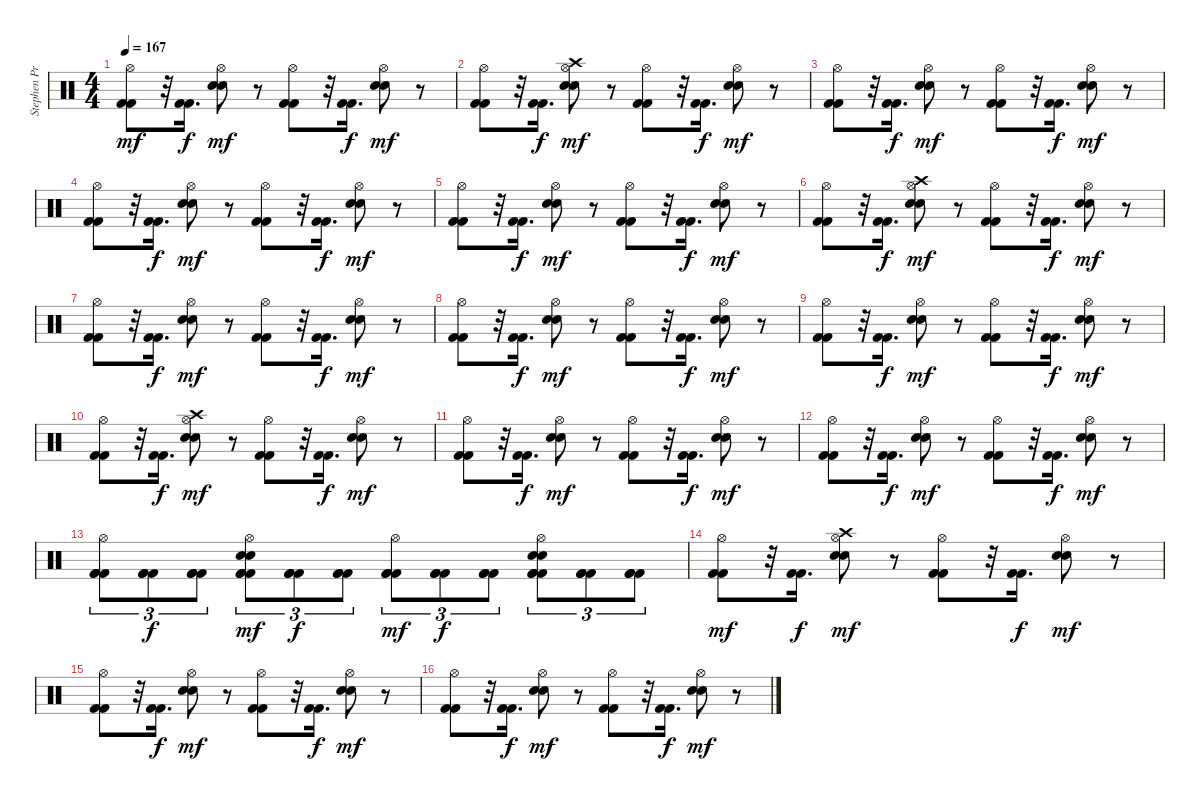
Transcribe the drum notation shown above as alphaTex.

\track ("Stephen Priestly  (Drums)" "Stephen Pr") {instrument percussion}
\staff {score}
\articulation defaults
\ts (4 4)
\tempo 167
\clef neutral
\ks c
("Hi-Hat (open)" "Kick (hit) 2" "Kick (hit) 2").8{dy mf} r.32 ("Kick (hit) 2" "Kick (hit) 2").16{d dy f} ("Hi-Hat (open)" "Electric Snare (hit)" "Electric Snare (hit)").8{dy mf} r.8 ("Hi-Hat (open)" "Kick (hit) 2" "Kick (hit) 2").8 r.32 ("Kick (hit) 2" "Kick (hit) 2").16{d dy f} ("Hi-Hat (open)" "Electric Snare (hit)" "Electric Snare (hit)").8{dy mf} r.8 |
("Hi-Hat (open)" "Kick (hit) 2" "Kick (hit) 2").8 r.32 ("Kick (hit) 2" "Kick (hit) 2").16{d dy f} ("Crash high (hit)" "Hi-Hat (open)" "Electric Snare (hit)" "Electric Snare (hit)").8{dy mf} r.8 ("Hi-Hat (open)" "Kick (hit) 2" "Kick (hit) 2").8 r.32 ("Kick (hit) 2" "Kick (hit) 2").16{d dy f} ("Hi-Hat (open)" "Electric Snare (hit)" "Electric Snare (hit)").8{dy mf} r.8 |
("Hi-Hat (open)" "Kick (hit) 2" "Kick (hit) 2").8 r.32 ("Kick (hit) 2" "Kick (hit) 2").16{d dy f} ("Hi-Hat (open)" "Electric Snare (hit)" "Electric Snare (hit)").8{dy mf} r.8 ("Hi-Hat (open)" "Kick (hit) 2" "Kick (hit) 2").8 r.32 ("Kick (hit) 2" "Kick (hit) 2").16{d dy f} ("Hi-Hat (open)" "Electric Snare (hit)" "Electric Snare (hit)").8{dy mf} r.8 |
("Hi-Hat (open)" "Kick (hit) 2" "Kick (hit) 2").8 r.32 ("Kick (hit) 2" "Kick (hit) 2").16{d dy f} ("Hi-Hat (open)" "Electric Snare (hit)" "Electric Snare (hit)").8{dy mf} r.8 ("Hi-Hat (open)" "Kick (hit) 2" "Kick (hit) 2").8 r.32 ("Kick (hit) 2" "Kick (hit) 2").16{d dy f} ("Hi-Hat (open)" "Electric Snare (hit)" "Electric Snare (hit)").8{dy mf} r.8 |
("Hi-Hat (open)" "Kick (hit) 2" "Kick (hit) 2").8 r.32 ("Kick (hit) 2" "Kick (hit) 2").16{d dy f} ("Hi-Hat (open)" "Electric Snare (hit)" "Electric Snare (hit)").8{dy mf} r.8 ("Hi-Hat (open)" "Kick (hit) 2" "Kick (hit) 2").8 r.32 ("Kick (hit) 2" "Kick (hit) 2").16{d dy f} ("Hi-Hat (open)" "Electric Snare (hit)" "Electric Snare (hit)").8{dy mf} r.8 |
("Hi-Hat (open)" "Kick (hit) 2" "Kick (hit) 2").8 r.32 ("Kick (hit) 2" "Kick (hit) 2").16{d dy f} ("Crash high (hit)" "Hi-Hat (open)" "Electric Snare (hit)" "Electric Snare (hit)").8{dy mf} r.8 ("Hi-Hat (open)" "Kick (hit) 2" "Kick (hit) 2").8 r.32 ("Kick (hit) 2" "Kick (hit) 2").16{d dy f} ("Hi-Hat (open)" "Electric Snare (hit)" "Electric Snare (hit)").8{dy mf} r.8 |
("Hi-Hat (open)" "Kick (hit) 2" "Kick (hit) 2").8 r.32 ("Kick (hit) 2" "Kick (hit) 2").16{d dy f} ("Hi-Hat (open)" "Electric Snare (hit)" "Electric Snare (hit)").8{dy mf} r.8 ("Hi-Hat (open)" "Kick (hit) 2" "Kick (hit) 2").8 r.32 ("Kick (hit) 2" "Kick (hit) 2").16{d dy f} ("Hi-Hat (open)" "Electric Snare (hit)" "Electric Snare (hit)").8{dy mf} r.8 |
("Hi-Hat (open)" "Kick (hit) 2" "Kick (hit) 2").8 r.32 ("Kick (hit) 2" "Kick (hit) 2").16{d dy f} ("Hi-Hat (open)" "Electric Snare (hit)" "Electric Snare (hit)").8{dy mf} r.8 ("Hi-Hat (open)" "Kick (hit) 2" "Kick (hit) 2").8 r.32 ("Kick (hit) 2" "Kick (hit) 2").16{d dy f} ("Hi-Hat (open)" "Electric Snare (hit)" "Electric Snare (hit)").8{dy mf} r.8 |
("Hi-Hat (open)" "Kick (hit) 2" "Kick (hit) 2").8 r.32 ("Kick (hit) 2" "Kick (hit) 2").16{d dy f} ("Hi-Hat (open)" "Electric Snare (hit)" "Electric Snare (hit)").8{dy mf} r.8 ("Hi-Hat (open)" "Kick (hit) 2" "Kick (hit) 2").8 r.32 ("Kick (hit) 2" "Kick (hit) 2").16{d dy f} ("Hi-Hat (open)" "Electric Snare (hit)" "Electric Snare (hit)").8{dy mf} r.8 |
("Hi-Hat (open)" "Kick (hit) 2" "Kick (hit) 2").8 r.32 ("Kick (hit) 2" "Kick (hit) 2").16{d dy f} ("Crash high (hit)" "Hi-Hat (open)" "Electric Snare (hit)" "Electric Snare (hit)").8{dy mf} r.8 ("Hi-Hat (open)" "Kick (hit) 2" "Kick (hit) 2").8 r.32 ("Kick (hit) 2" "Kick (hit) 2").16{d dy f} ("Hi-Hat (open)" "Electric Snare (hit)" "Electric Snare (hit)").8{dy mf} r.8 |
("Hi-Hat (open)" "Kick (hit) 2" "Kick (hit) 2").8 r.32 ("Kick (hit) 2" "Kick (hit) 2").16{d dy f} ("Hi-Hat (open)" "Electric Snare (hit)" "Electric Snare (hit)").8{dy mf} r.8 ("Hi-Hat (open)" "Kick (hit) 2" "Kick (hit) 2").8 r.32 ("Kick (hit) 2" "Kick (hit) 2").16{d dy f} ("Hi-Hat (open)" "Electric Snare (hit)" "Electric Snare (hit)").8{dy mf} r.8 |
("Hi-Hat (open)" "Kick (hit) 2" "Kick (hit) 2").8 r.32 ("Kick (hit) 2" "Kick (hit) 2").16{d dy f} ("Hi-Hat (open)" "Electric Snare (hit)" "Electric Snare (hit)").8{dy mf} r.8 ("Hi-Hat (open)" "Kick (hit) 2" "Kick (hit) 2").8 r.32 ("Kick (hit) 2" "Kick (hit) 2").16{d dy f} ("Hi-Hat (open)" "Electric Snare (hit)" "Electric Snare (hit)").8{dy mf} r.8 |
("Hi-Hat (open)" "Kick (hit) 2" "Kick (hit) 2" "Kick (hit) 2").8{tu (3 2)} ("Kick (hit) 2" "Kick (hit) 2" "Kick (hit) 2").8{tu (3 2) dy f} ("Kick (hit) 2" "Kick (hit) 2" "Kick (hit) 2").8{tu (3 2)} ("Electric Snare (hit)" "Hi-Hat (open)" "Electric Snare (hit)" "Kick (hit) 2" "Kick (hit) 2" "Kick (hit) 2").8{tu (3 2) dy mf} ("Kick (hit) 2" "Kick (hit) 2" "Kick (hit) 2").8{tu (3 2) dy f} ("Kick (hit) 2" "Kick (hit) 2" "Kick (hit) 2").8{tu (3 2)} ("Hi-Hat (open)" "Kick (hit) 2" "Kick (hit) 2" "Kick (hit) 2").8{tu (3 2) dy mf} ("Kick (hit) 2" "Kick (hit) 2" "Kick (hit) 2").8{tu (3 2) dy f} ("Kick (hit) 2" "Kick (hit) 2" "Kick (hit) 2").8{tu (3 2)} ("Electric Snare (hit)" "Hi-Hat (open)" "Electric Snare (hit)" "Kick (hit) 2" "Kick (hit) 2" "Kick (hit) 2").8{tu (3 2)} ("Kick (hit) 2" "Kick (hit) 2" "Kick (hit) 2").8{tu (3 2)} ("Kick (hit) 2" "Kick (hit) 2" "Kick (hit) 2").8{tu (3 2)} |
("Hi-Hat (open)" "Kick (hit) 2" "Kick (hit) 2").8{dy mf} r.32 ("Kick (hit) 2" "Kick (hit) 2").16{d dy f} ("Crash high (hit)" "Hi-Hat (open)" "Electric Snare (hit)" "Electric Snare (hit)").8{dy mf} r.8 ("Hi-Hat (open)" "Kick (hit) 2" "Kick (hit) 2").8 r.32 ("Kick (hit) 2" "Kick (hit) 2").16{d dy f} ("Hi-Hat (open)" "Electric Snare (hit)" "Electric Snare (hit)").8{dy mf} r.8 |
("Hi-Hat (open)" "Kick (hit) 2" "Kick (hit) 2").8 r.32 ("Kick (hit) 2" "Kick (hit) 2").16{d dy f} ("Hi-Hat (open)" "Electric Snare (hit)" "Electric Snare (hit)").8{dy mf} r.8 ("Hi-Hat (open)" "Kick (hit) 2" "Kick (hit) 2").8 r.32 ("Kick (hit) 2" "Kick (hit) 2").16{d dy f} ("Hi-Hat (open)" "Electric Snare (hit)" "Electric Snare (hit)").8{dy mf} r.8 |
("Hi-Hat (open)" "Kick (hit) 2" "Kick (hit) 2").8 r.32 ("Kick (hit) 2" "Kick (hit) 2").16{d dy f} ("Hi-Hat (open)" "Electric Snare (hit)" "Electric Snare (hit)").8{dy mf} r.8 ("Hi-Hat (open)" "Kick (hit) 2" "Kick (hit) 2").8 r.32 ("Kick (hit) 2" "Kick (hit) 2").16{d dy f} ("Hi-Hat (open)" "Electric Snare (hit)" "Electric Snare (hit)").8{dy mf} r.8
